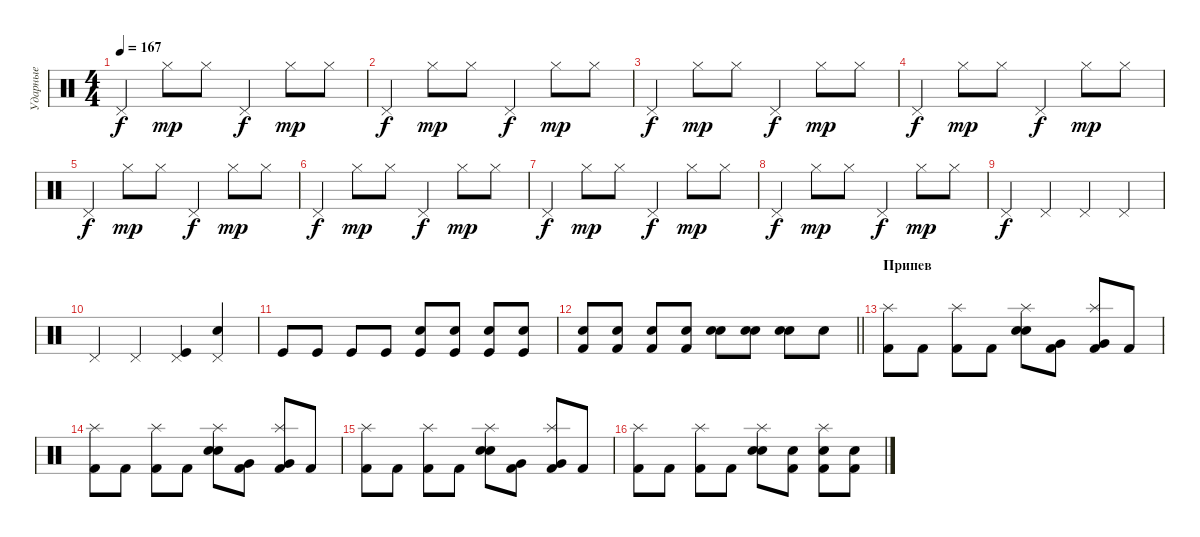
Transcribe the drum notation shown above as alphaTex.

\track ("Ударные" "Ударные") {instrument percussion}
\staff {score}
\articulation defaults
\ts (4 4)
\tempo 167
\clef neutral
\ks c "Pedal Hi-Hat (hit)".4{dy f} "Hi-Hat (closed)".8{dy mp} "Hi-Hat (closed)".8 "Pedal Hi-Hat (hit)".4{dy f} "Hi-Hat (closed)".8{dy mp} "Hi-Hat (closed)".8
|
"Pedal Hi-Hat (hit)".4{dy f} "Hi-Hat (closed)".8{dy mp} "Hi-Hat (closed)".8 "Pedal Hi-Hat (hit)".4{dy f} "Hi-Hat (closed)".8{dy mp} "Hi-Hat (closed)".8 |
"Pedal Hi-Hat (hit)".4{dy f} "Hi-Hat (closed)".8{dy mp} "Hi-Hat (closed)".8 "Pedal Hi-Hat (hit)".4{dy f} "Hi-Hat (closed)".8{dy mp} "Hi-Hat (closed)".8 |
"Pedal Hi-Hat (hit)".4{dy f} "Hi-Hat (closed)".8{dy mp} "Hi-Hat (closed)".8 "Pedal Hi-Hat (hit)".4{dy f} "Hi-Hat (closed)".8{dy mp} "Hi-Hat (closed)".8 |
"Pedal Hi-Hat (hit)".4{dy f} "Hi-Hat (closed)".8{dy mp} "Hi-Hat (closed)".8 "Pedal Hi-Hat (hit)".4{dy f} "Hi-Hat (closed)".8{dy mp} "Hi-Hat (closed)".8 |
"Pedal Hi-Hat (hit)".4{dy f} "Hi-Hat (closed)".8{dy mp} "Hi-Hat (closed)".8 "Pedal Hi-Hat (hit)".4{dy f} "Hi-Hat (closed)".8{dy mp} "Hi-Hat (closed)".8 |
"Pedal Hi-Hat (hit)".4{dy f} "Hi-Hat (closed)".8{dy mp} "Hi-Hat (closed)".8 "Pedal Hi-Hat (hit)".4{dy f} "Hi-Hat (closed)".8{dy mp} "Hi-Hat (closed)".8 |
"Pedal Hi-Hat (hit)".4{dy f} "Hi-Hat (closed)".8{dy mp} "Hi-Hat (closed)".8 "Pedal Hi-Hat (hit)".4{dy f} "Hi-Hat (closed)".8{dy mp} "Hi-Hat (closed)".8 |
"Pedal Hi-Hat (hit)".4{dy f} "Pedal Hi-Hat (hit)".4 "Pedal Hi-Hat (hit)".4 "Pedal Hi-Hat (hit)".4 |
"Pedal Hi-Hat (hit)".4 "Pedal Hi-Hat (hit)".4 ("Pedal Hi-Hat (hit)" "Kick (hit)").4 ("Pedal Hi-Hat (hit)" "Electric Snare (hit)").4 |
"Kick (hit)".8 "Kick (hit)".8 "Kick (hit)".8 "Kick (hit)".8 ("Snare (hit) 2" "Kick (hit)").8 ("Snare (hit) 2" "Kick (hit)").8 ("Snare (hit) 2" "Kick (hit)").8 ("Snare (hit) 2" "Kick (hit)").8 |
\barLineRight lightlight
("Snare (hit) 2" "Kick (hit) 2").8 ("Snare (hit) 2" "Kick (hit) 2").8 ("Snare (hit) 2" "Kick (hit) 2").8 ("Snare (hit) 2" "Kick (hit) 2").8 ("Electric Snare (hit)" "Snare (hit) 2").8 ("Electric Snare (hit)" "Snare (hit) 2").8 ("Electric Snare (hit)" "Snare (hit) 2").8 "Electric Snare (hit)".8 |
\section ("" "Припев")
("Splash (hit)" "Kick (hit) 2").8 "Kick (hit) 2".8 ("Splash (hit)" "Kick (hit) 2").8 "Kick (hit) 2".8 ("Splash (hit)" "Electric Snare (hit)" "Snare (hit) 2").8 ("Very Low Tom (hit)" "Kick (hit) 2").8 ("Splash (hit)" "Very Low Tom (hit)" "Kick (hit) 2").8 "Kick (hit) 2".8 |
("Splash (hit)" "Kick (hit) 2").8 "Kick (hit) 2".8 ("Splash (hit)" "Kick (hit) 2").8 "Kick (hit) 2".8 ("Splash (hit)" "Electric Snare (hit)" "Snare (hit) 2").8 ("Very Low Tom (hit)" "Kick (hit) 2").8 ("Splash (hit)" "Very Low Tom (hit)" "Kick (hit) 2").8 "Kick (hit) 2".8 |
("Splash (hit)" "Kick (hit) 2").8 "Kick (hit) 2".8 ("Splash (hit)" "Kick (hit) 2").8 "Kick (hit) 2".8 ("Splash (hit)" "Electric Snare (hit)" "Snare (hit) 2").8 ("Very Low Tom (hit)" "Kick (hit) 2").8 ("Splash (hit)" "Very Low Tom (hit)" "Kick (hit) 2").8 "Kick (hit) 2".8 |
("Splash (hit)" "Kick (hit) 2").8 "Kick (hit) 2".8 ("Splash (hit)" "Kick (hit) 2").8 "Kick (hit) 2".8 ("Splash (hit)" "Electric Snare (hit)" "Snare (hit) 2").8 ("Electric Snare (hit)" "Kick (hit) 2").8 ("Splash (hit)" "Electric Snare (hit)" "Kick (hit) 2").8 ("Electric Snare (hit)" "Kick (hit) 2").8
